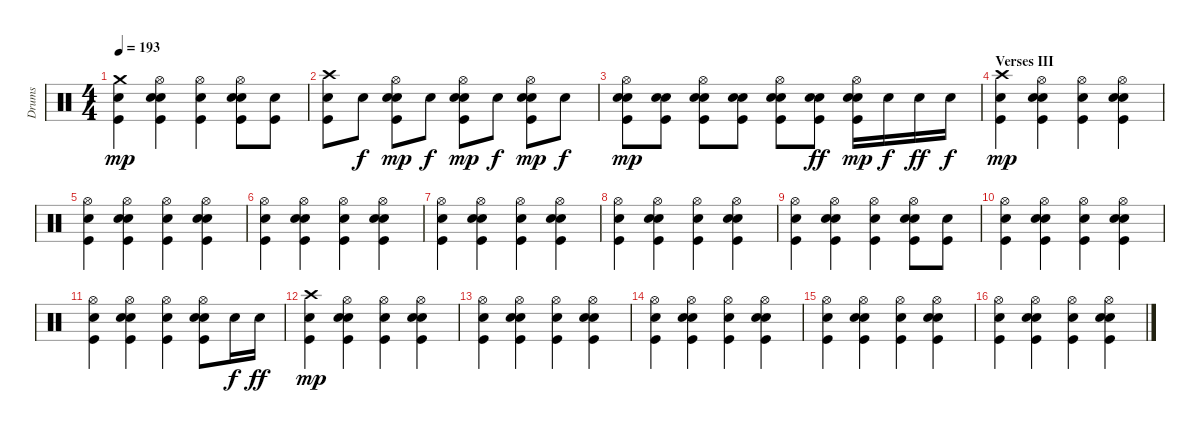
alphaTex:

\track ("Drums" "Drums") {instrument percussion}
\staff {score}
\articulation defaults
\ts (4 4)
\tempo 193
\clef neutral
\ks c
("Crash medium (hit)" "Kick (hit)" "Snare (hit) 2").4{dy mp} ("Kick (hit)" "Snare (hit) 2" "Electric Snare (hit)" "Hi-Hat (open)").4 ("Kick (hit)" "Snare (hit) 2" "Hi-Hat (open)").4 ("Kick (hit)" "Snare (hit) 2" "Electric Snare (hit)" "Hi-Hat (open)").8 ("Kick (hit)" "Snare (hit) 2").8 |
("Crash high (hit)" "Kick (hit)" "Snare (hit) 2").8 "Electric Snare (hit)".8{dy f} ("Kick (hit)" "Snare (hit) 2" "Electric Snare (hit)" "Hi-Hat (open)").8{dy mp} "Electric Snare (hit)".8{dy f} ("Kick (hit)" "Snare (hit) 2" "Electric Snare (hit)" "Hi-Hat (open)").8{dy mp} "Electric Snare (hit)".8{dy f} ("Kick (hit)" "Snare (hit) 2" "Electric Snare (hit)" "Hi-Hat (open)").8{dy mp} "Electric Snare (hit)".8{dy f} |
("Kick (hit)" "Snare (hit) 2" "Electric Snare (hit)" "Hi-Hat (open)").8{dy mp} ("Kick (hit)" "Snare (hit) 2" "Electric Snare (hit)").8 ("Kick (hit)" "Snare (hit) 2" "Electric Snare (hit)" "Hi-Hat (open)").8 ("Kick (hit)" "Snare (hit) 2" "Electric Snare (hit)").8 ("Kick (hit)" "Snare (hit) 2" "Electric Snare (hit)" "Hi-Hat (open)").8 ("Kick (hit)" "Snare (hit) 2" "Electric Snare (hit)").8{dy ff} ("Kick (hit)" "Snare (hit) 2" "Electric Snare (hit)" "Hi-Hat (open)").16{dy mp} "Electric Snare (hit)".16{dy f} "Electric Snare (hit)".16{dy ff} "Electric Snare (hit)".16{dy f} |
\section ("" "Verses III")
("Crash high (hit)" "Kick (hit)" "Snare (hit) 2").4{dy mp} ("Kick (hit)" "Snare (hit) 2" "Electric Snare (hit)" "Hi-Hat (open)").4 ("Kick (hit)" "Snare (hit) 2" "Hi-Hat (open)").4 ("Kick (hit)" "Snare (hit) 2" "Electric Snare (hit)" "Hi-Hat (open)").4 |
("Kick (hit)" "Snare (hit) 2" "Hi-Hat (open)").4 ("Kick (hit)" "Snare (hit) 2" "Electric Snare (hit)" "Hi-Hat (open)").4 ("Kick (hit)" "Snare (hit) 2" "Hi-Hat (open)").4 ("Kick (hit)" "Snare (hit) 2" "Electric Snare (hit)" "Hi-Hat (open)").4 |
("Kick (hit)" "Snare (hit) 2" "Hi-Hat (open)").4 ("Kick (hit)" "Snare (hit) 2" "Electric Snare (hit)" "Hi-Hat (open)").4 ("Kick (hit)" "Snare (hit) 2" "Hi-Hat (open)").4 ("Kick (hit)" "Snare (hit) 2" "Electric Snare (hit)" "Hi-Hat (open)").4 |
("Kick (hit)" "Snare (hit) 2" "Hi-Hat (open)").4 ("Kick (hit)" "Snare (hit) 2" "Electric Snare (hit)" "Hi-Hat (open)").4 ("Kick (hit)" "Snare (hit) 2" "Hi-Hat (open)").4 ("Kick (hit)" "Snare (hit) 2" "Electric Snare (hit)" "Hi-Hat (open)").4 |
("Kick (hit)" "Snare (hit) 2" "Hi-Hat (open)").4 ("Kick (hit)" "Snare (hit) 2" "Electric Snare (hit)" "Hi-Hat (open)").4 ("Kick (hit)" "Snare (hit) 2" "Hi-Hat (open)").4 ("Kick (hit)" "Snare (hit) 2" "Electric Snare (hit)" "Hi-Hat (open)").4 |
("Kick (hit)" "Snare (hit) 2" "Hi-Hat (open)").4 ("Kick (hit)" "Snare (hit) 2" "Electric Snare (hit)" "Hi-Hat (open)").4 ("Kick (hit)" "Snare (hit) 2" "Hi-Hat (open)").4 ("Kick (hit)" "Snare (hit) 2" "Electric Snare (hit)" "Hi-Hat (open)").8 ("Kick (hit)" "Snare (hit) 2").8 |
("Kick (hit)" "Snare (hit) 2" "Hi-Hat (open)").4 ("Kick (hit)" "Snare (hit) 2" "Electric Snare (hit)" "Hi-Hat (open)").4 ("Kick (hit)" "Snare (hit) 2" "Hi-Hat (open)").4 ("Kick (hit)" "Snare (hit) 2" "Electric Snare (hit)" "Hi-Hat (open)").4 |
("Kick (hit)" "Snare (hit) 2" "Hi-Hat (open)").4 ("Kick (hit)" "Snare (hit) 2" "Electric Snare (hit)" "Hi-Hat (open)").4 ("Kick (hit)" "Snare (hit) 2" "Hi-Hat (open)").4 ("Kick (hit)" "Snare (hit) 2" "Electric Snare (hit)" "Hi-Hat (open)").8 "Electric Snare (hit)".16{dy f} "Electric Snare (hit)".16{dy ff} |
("Crash high (hit)" "Kick (hit)" "Snare (hit) 2").4{dy mp} ("Kick (hit)" "Snare (hit) 2" "Electric Snare (hit)" "Hi-Hat (open)").4 ("Kick (hit)" "Snare (hit) 2" "Hi-Hat (open)").4 ("Kick (hit)" "Snare (hit) 2" "Electric Snare (hit)" "Hi-Hat (open)").4 |
("Kick (hit)" "Snare (hit) 2" "Hi-Hat (open)").4 ("Kick (hit)" "Snare (hit) 2" "Electric Snare (hit)" "Hi-Hat (open)").4 ("Kick (hit)" "Snare (hit) 2" "Hi-Hat (open)").4 ("Kick (hit)" "Snare (hit) 2" "Electric Snare (hit)" "Hi-Hat (open)").4 |
("Kick (hit)" "Snare (hit) 2" "Hi-Hat (open)").4 ("Kick (hit)" "Snare (hit) 2" "Electric Snare (hit)" "Hi-Hat (open)").4 ("Kick (hit)" "Snare (hit) 2" "Hi-Hat (open)").4 ("Kick (hit)" "Snare (hit) 2" "Electric Snare (hit)" "Hi-Hat (open)").4 |
("Kick (hit)" "Snare (hit) 2" "Hi-Hat (open)").4 ("Kick (hit)" "Snare (hit) 2" "Electric Snare (hit)" "Hi-Hat (open)").4 ("Kick (hit)" "Snare (hit) 2" "Hi-Hat (open)").4 ("Kick (hit)" "Snare (hit) 2" "Electric Snare (hit)" "Hi-Hat (open)").4 |
("Kick (hit)" "Snare (hit) 2" "Hi-Hat (open)").4 ("Kick (hit)" "Snare (hit) 2" "Electric Snare (hit)" "Hi-Hat (open)").4 ("Kick (hit)" "Snare (hit) 2" "Hi-Hat (open)").4 ("Kick (hit)" "Snare (hit) 2" "Electric Snare (hit)" "Hi-Hat (open)").4
